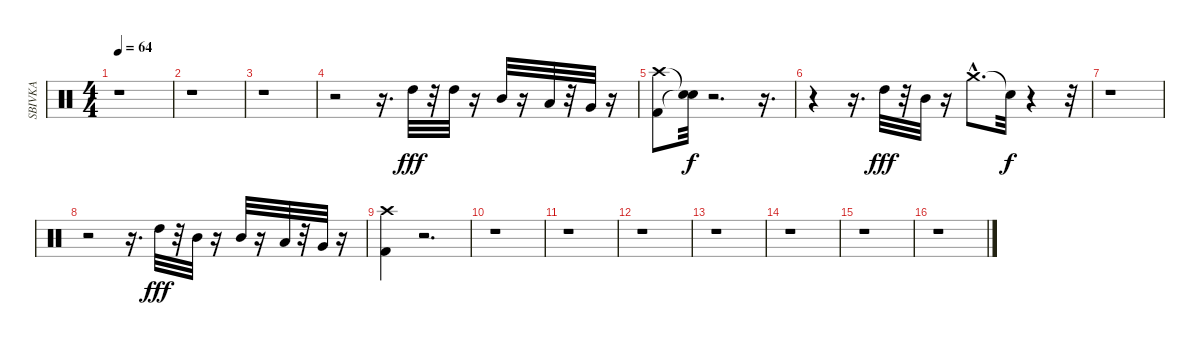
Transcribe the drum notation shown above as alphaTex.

\track ("SBIVKA" "SBIVKA") {instrument percussion}
\staff {score}
\articulation defaults
\ts (4 4)
\tempo 64
\clef neutral
\ks c
r.1{dy fff} |
r.1 |
r.1 |
r.2 r.16{d} "High Tom (hit)".32 r.32 "High Tom (hit)".32 r.16 "Mid Tom (hit)".32 r.16 "Low Tom (hit)".32 r.32 "Very Low Tom (hit)".32 r.16 |
("Crash high (hit)" "Kick (hit) 2").8 ("Snare (hit)"{t} "Snare (hit)"{t}).32{dy f} r.2{d} r.16{d} |
r.4 r.16{d} "High Tom (hit)".32{dy fff} r.32 "Mid Tom (hit)".32 r.16 "Crash medium (hit)"{hac}.8{d} "Snare (hit)"{t}.32{dy f} r.4 r.32 |
r.1 |
r.2 r.16{d} "High Tom (hit)".32{dy fff} r.32 "Mid Tom (hit)".32 r.16 "Mid Tom (hit)".32 r.16 "Low Tom (hit)".32 r.32 "Very Low Tom (hit)".32 r.16 |
("Kick (hit) 2" "Crash high (hit)").4 r.2{d} |
r.1 |
r.1 |
r.1 |
r.1 |
r.1 |
r.1 |
r.1
